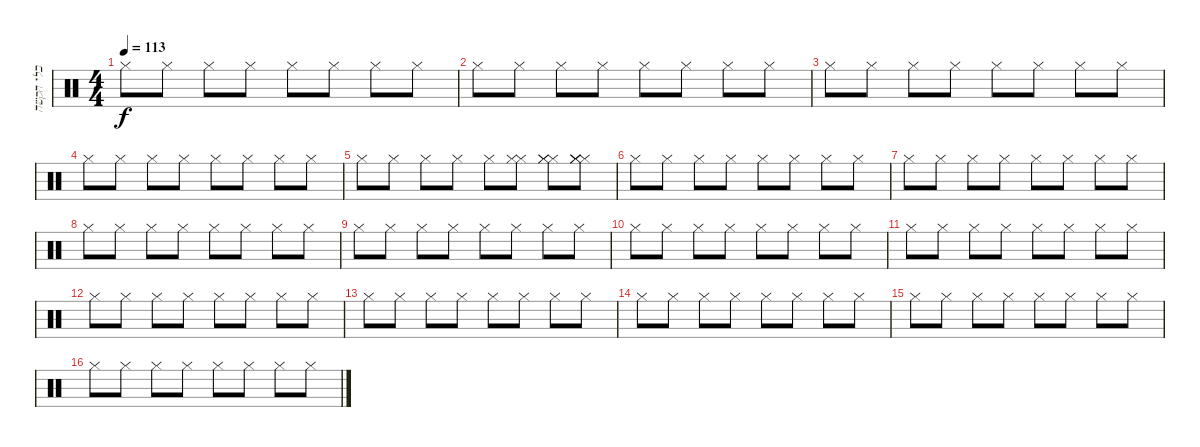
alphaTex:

\track ("כלי הקשה" "כלי הקשה") {instrument percussion}
\staff {score}
\articulation defaults
\ts (4 4)
\tempo 113
\clef neutral
\ks c "Hi-Hat (closed)".8{dy f} "Hi-Hat (closed)".8 "Hi-Hat (closed)".8 "Hi-Hat (closed)".8 "Hi-Hat (closed)".8 "Hi-Hat (closed)".8 "Hi-Hat (closed)".8 "Hi-Hat (closed)".8
|
"Hi-Hat (closed)".8 "Hi-Hat (closed)".8 "Hi-Hat (closed)".8 "Hi-Hat (closed)".8 "Hi-Hat (closed)".8 "Hi-Hat (closed)".8 "Hi-Hat (closed)".8 "Hi-Hat (closed)".8 |
"Hi-Hat (closed)".8 "Hi-Hat (closed)".8 "Hi-Hat (closed)".8 "Hi-Hat (closed)".8 "Hi-Hat (closed)".8 "Hi-Hat (closed)".8 "Hi-Hat (closed)".8 "Hi-Hat (closed)".8 |
"Hi-Hat (closed)".8 "Hi-Hat (closed)".8 "Hi-Hat (closed)".8 "Hi-Hat (closed)".8 "Hi-Hat (closed)".8 "Hi-Hat (closed)".8 "Hi-Hat (closed)".8 "Hi-Hat (closed)".8 |
"Hi-Hat (closed)".8 "Hi-Hat (closed)".8 "Hi-Hat (closed)".8 "Hi-Hat (closed)".8 "Hi-Hat (closed)".8 ("Hi-Hat (closed)" "Hi-Hat (closed)").8 ("Hi-Hat (closed)" "Hi-Hat (closed)" "Hi-Hat (closed)").8 ("Hi-Hat (closed)" "Hi-Hat (closed)" "Hi-Hat (closed)" "Hi-Hat (closed)").8 |
"Hi-Hat (closed)".8 "Hi-Hat (closed)".8 "Hi-Hat (closed)".8 "Hi-Hat (closed)".8 "Hi-Hat (closed)".8 "Hi-Hat (closed)".8 "Hi-Hat (closed)".8 "Hi-Hat (closed)".8 |
"Hi-Hat (closed)".8 "Hi-Hat (closed)".8 "Hi-Hat (closed)".8 "Hi-Hat (closed)".8 "Hi-Hat (closed)".8 "Hi-Hat (closed)".8 "Hi-Hat (closed)".8 "Hi-Hat (closed)".8 |
"Hi-Hat (closed)".8 "Hi-Hat (closed)".8 "Hi-Hat (closed)".8 "Hi-Hat (closed)".8 "Hi-Hat (closed)".8 "Hi-Hat (closed)".8 "Hi-Hat (closed)".8 "Hi-Hat (closed)".8 |
"Hi-Hat (closed)".8 "Hi-Hat (closed)".8 "Hi-Hat (closed)".8 "Hi-Hat (closed)".8 "Hi-Hat (closed)".8 "Hi-Hat (closed)".8 "Hi-Hat (closed)".8 "Hi-Hat (closed)".8 |
"Hi-Hat (closed)".8 "Hi-Hat (closed)".8 "Hi-Hat (closed)".8 "Hi-Hat (closed)".8 "Hi-Hat (closed)".8 "Hi-Hat (closed)".8 "Hi-Hat (closed)".8 "Hi-Hat (closed)".8 |
"Hi-Hat (closed)".8 "Hi-Hat (closed)".8 "Hi-Hat (closed)".8 "Hi-Hat (closed)".8 "Hi-Hat (closed)".8 "Hi-Hat (closed)".8 "Hi-Hat (closed)".8 "Hi-Hat (closed)".8 |
"Hi-Hat (closed)".8 "Hi-Hat (closed)".8 "Hi-Hat (closed)".8 "Hi-Hat (closed)".8 "Hi-Hat (closed)".8 "Hi-Hat (closed)".8 "Hi-Hat (closed)".8 "Hi-Hat (closed)".8 |
"Hi-Hat (closed)".8 "Hi-Hat (closed)".8 "Hi-Hat (closed)".8 "Hi-Hat (closed)".8 "Hi-Hat (closed)".8 "Hi-Hat (closed)".8 "Hi-Hat (closed)".8 "Hi-Hat (closed)".8 |
"Hi-Hat (closed)".8 "Hi-Hat (closed)".8 "Hi-Hat (closed)".8 "Hi-Hat (closed)".8 "Hi-Hat (closed)".8 "Hi-Hat (closed)".8 "Hi-Hat (closed)".8 "Hi-Hat (closed)".8 |
"Hi-Hat (closed)".8 "Hi-Hat (closed)".8 "Hi-Hat (closed)".8 "Hi-Hat (closed)".8 "Hi-Hat (closed)".8 "Hi-Hat (closed)".8 "Hi-Hat (closed)".8 "Hi-Hat (closed)".8 |
"Hi-Hat (closed)".8 "Hi-Hat (closed)".8 "Hi-Hat (closed)".8 "Hi-Hat (closed)".8 "Hi-Hat (closed)".8 "Hi-Hat (closed)".8 "Hi-Hat (closed)".8 "Hi-Hat (closed)".8
